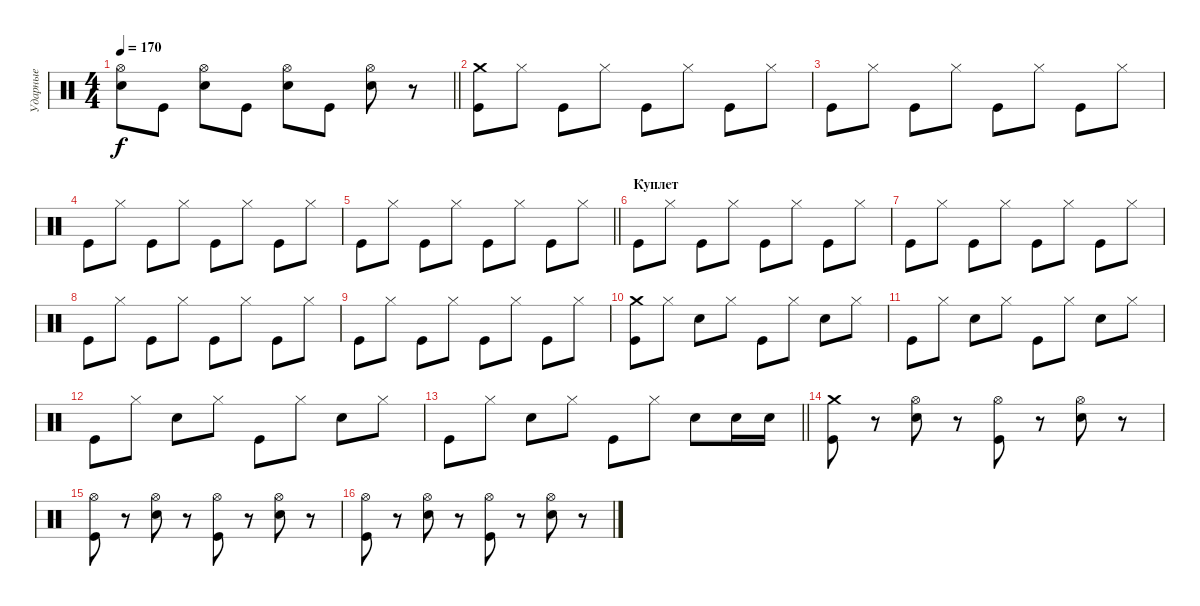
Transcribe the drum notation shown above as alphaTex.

\track ("Ударные" "Ударные") {instrument percussion}
\staff {score}
\articulation defaults
\ts (4 4)
\tempo 170
\clef neutral
\barLineRight lightlight
\ks c
("Hi-Hat (open)" "Electric Snare (hit)").8{dy f} "Kick (hit)".8 ("Hi-Hat (open)" "Electric Snare (hit)").8 "Kick (hit)".8 ("Hi-Hat (open)" "Electric Snare (hit)").8 "Kick (hit)".8 ("Hi-Hat (open)" "Electric Snare (hit)").8 r.8 |
\section ("" " ")
("Crash medium (hit)" "Kick (hit)").8 "Hi-Hat (closed)".8 "Kick (hit)".8 "Hi-Hat (closed)".8 "Kick (hit)".8 "Hi-Hat (closed)".8 "Kick (hit)".8 "Hi-Hat (closed)".8 |
"Kick (hit)".8 "Hi-Hat (closed)".8 "Kick (hit)".8 "Hi-Hat (closed)".8 "Kick (hit)".8 "Hi-Hat (closed)".8 "Kick (hit)".8 "Hi-Hat (closed)".8 |
"Kick (hit)".8 "Hi-Hat (closed)".8 "Kick (hit)".8 "Hi-Hat (closed)".8 "Kick (hit)".8 "Hi-Hat (closed)".8 "Kick (hit)".8 "Hi-Hat (closed)".8 |
\barLineRight lightlight "Kick (hit)".8 "Hi-Hat (closed)".8 "Kick (hit)".8 "Hi-Hat (closed)".8 "Kick (hit)".8 "Hi-Hat (closed)".8 "Kick (hit)".8 "Hi-Hat (closed)".8
|
\section ("" "Куплет")
"Kick (hit)".8 "Hi-Hat (closed)".8 "Kick (hit)".8 "Hi-Hat (closed)".8 "Kick (hit)".8 "Hi-Hat (closed)".8 "Kick (hit)".8 "Hi-Hat (closed)".8 |
"Kick (hit)".8 "Hi-Hat (closed)".8 "Kick (hit)".8 "Hi-Hat (closed)".8 "Kick (hit)".8 "Hi-Hat (closed)".8 "Kick (hit)".8 "Hi-Hat (closed)".8 |
"Kick (hit)".8 "Hi-Hat (closed)".8 "Kick (hit)".8 "Hi-Hat (closed)".8 "Kick (hit)".8 "Hi-Hat (closed)".8 "Kick (hit)".8 "Hi-Hat (closed)".8 |
"Kick (hit)".8 "Hi-Hat (closed)".8 "Kick (hit)".8 "Hi-Hat (closed)".8 "Kick (hit)".8 "Hi-Hat (closed)".8 "Kick (hit)".8 "Hi-Hat (closed)".8 |
("Crash medium (hit)" "Kick (hit)").8 "Hi-Hat (closed)".8 "Electric Snare (hit)".8 "Hi-Hat (closed)".8 "Kick (hit)".8 "Hi-Hat (closed)".8 "Electric Snare (hit)".8 "Hi-Hat (closed)".8 |
"Kick (hit)".8 "Hi-Hat (closed)".8 "Electric Snare (hit)".8 "Hi-Hat (closed)".8 "Kick (hit)".8 "Hi-Hat (closed)".8 "Electric Snare (hit)".8 "Hi-Hat (closed)".8 |
"Kick (hit)".8 "Hi-Hat (closed)".8 "Electric Snare (hit)".8 "Hi-Hat (closed)".8 "Kick (hit)".8 "Hi-Hat (closed)".8 "Electric Snare (hit)".8 "Hi-Hat (closed)".8 |
\barLineRight lightlight "Kick (hit)".8 "Hi-Hat (closed)".8 "Electric Snare (hit)".8 "Hi-Hat (closed)".8 "Kick (hit)".8 "Hi-Hat (closed)".8 "Electric Snare (hit)".8 "Electric Snare (hit)".16 "Electric Snare (hit)".16
|
\section ("" " ")
("Crash medium (hit)" "Kick (hit)").8 r.8 ("Hi-Hat (open)" "Electric Snare (hit)").8 r.8 ("Hi-Hat (open)" "Kick (hit)").8 r.8 ("Hi-Hat (open)" "Electric Snare (hit)").8 r.8 |
("Hi-Hat (open)" "Kick (hit)").8 r.8 ("Hi-Hat (open)" "Electric Snare (hit)").8 r.8 ("Hi-Hat (open)" "Kick (hit)").8 r.8 ("Hi-Hat (open)" "Electric Snare (hit)").8 r.8 |
("Hi-Hat (open)" "Kick (hit)").8 r.8 ("Hi-Hat (open)" "Electric Snare (hit)").8 r.8 ("Hi-Hat (open)" "Kick (hit)").8 r.8 ("Hi-Hat (open)" "Electric Snare (hit)").8 r.8
